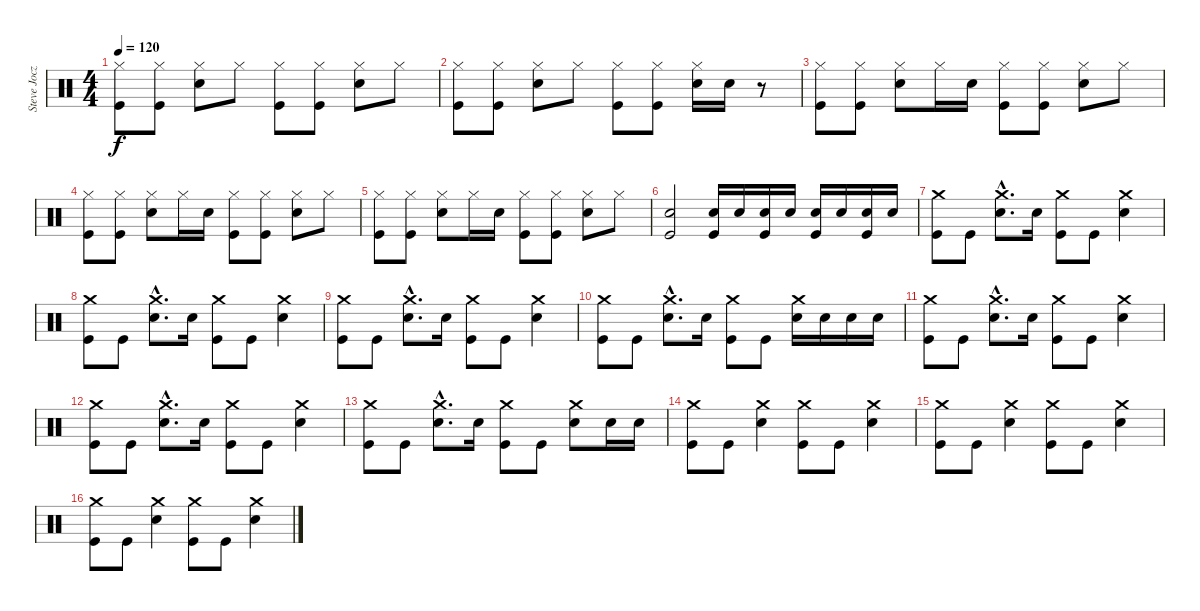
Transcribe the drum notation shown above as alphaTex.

\track ("Steve Jocz (STEVO)" "Steve Jocz") {instrument percussion}
\staff {score}
\articulation defaults
\ts (4 4)
\tempo 120
\clef neutral
\ks c
("Hi-Hat (closed)" "Kick (hit)").8{dy f} ("Hi-Hat (closed)" "Kick (hit)").8 ("Hi-Hat (closed)" "Snare (hit) 2").8 "Hi-Hat (closed)".8 ("Hi-Hat (closed)" "Kick (hit)").8 ("Hi-Hat (closed)" "Kick (hit)").8 ("Hi-Hat (closed)" "Snare (hit) 2").8 "Hi-Hat (closed)".8 |
("Hi-Hat (closed)" "Kick (hit)").8 ("Hi-Hat (closed)" "Kick (hit)").8 ("Hi-Hat (closed)" "Snare (hit) 2").8 "Hi-Hat (closed)".8 ("Hi-Hat (closed)" "Kick (hit)").8 ("Hi-Hat (closed)" "Kick (hit)").8 ("Hi-Hat (closed)" "Snare (hit) 2").16 "Snare (hit) 2".16 r.8 |
("Hi-Hat (closed)" "Kick (hit)").8 ("Hi-Hat (closed)" "Kick (hit)").8 ("Hi-Hat (closed)" "Snare (hit) 2").8 "Hi-Hat (closed)".16 "Snare (hit) 2".16 ("Hi-Hat (closed)" "Kick (hit)").8 ("Hi-Hat (closed)" "Kick (hit)").8 ("Hi-Hat (closed)" "Snare (hit) 2").8 "Hi-Hat (closed)".8 |
("Hi-Hat (closed)" "Kick (hit)").8 ("Hi-Hat (closed)" "Kick (hit)").8 ("Hi-Hat (closed)" "Snare (hit) 2").8 "Hi-Hat (closed)".16 "Snare (hit) 2".16 ("Hi-Hat (closed)" "Kick (hit)").8 ("Hi-Hat (closed)" "Kick (hit)").8 ("Hi-Hat (closed)" "Snare (hit) 2").8 "Hi-Hat (closed)".8 |
("Hi-Hat (closed)" "Kick (hit)").8 ("Hi-Hat (closed)" "Kick (hit)").8 ("Hi-Hat (closed)" "Snare (hit) 2").8 "Hi-Hat (closed)".16 "Snare (hit) 2".16 ("Hi-Hat (closed)" "Kick (hit)").8 ("Hi-Hat (closed)" "Kick (hit)").8 ("Hi-Hat (closed)" "Snare (hit) 2").8 "Hi-Hat (closed)".8 |
("Snare (hit) 2" "Kick (hit)").2 ("Snare (hit) 2" "Kick (hit)").16 "Snare (hit) 2".16 ("Snare (hit) 2" "Kick (hit)").16 "Snare (hit) 2".16 ("Snare (hit) 2" "Kick (hit)").16 "Snare (hit) 2".16 ("Snare (hit) 2" "Kick (hit)").16 "Snare (hit) 2".16 |
("Crash medium (hit)" "Kick (hit)").8 "Kick (hit)".8 ("Crash medium (hit)"{hac} "Snare (hit) 2"{hac}).8{d} "Snare (hit) 2".16 ("Crash medium (hit)" "Kick (hit)").8 "Kick (hit)".8 ("Crash medium (hit)" "Snare (hit) 2").4 |
("Crash medium (hit)" "Kick (hit)").8 "Kick (hit)".8 ("Crash medium (hit)"{hac} "Snare (hit) 2"{hac}).8{d} "Snare (hit) 2".16 ("Crash medium (hit)" "Kick (hit)").8 "Kick (hit)".8 ("Crash medium (hit)" "Snare (hit) 2").4 |
("Crash medium (hit)" "Kick (hit)").8 "Kick (hit)".8 ("Crash medium (hit)"{hac} "Snare (hit) 2"{hac}).8{d} "Snare (hit) 2".16 ("Crash medium (hit)" "Kick (hit)").8 "Kick (hit)".8 ("Crash medium (hit)" "Snare (hit) 2").4 |
("Crash medium (hit)" "Kick (hit)").8 "Kick (hit)".8 ("Crash medium (hit)"{hac} "Snare (hit) 2"{hac}).8{d} "Snare (hit) 2".16 ("Crash medium (hit)" "Kick (hit)").8 "Kick (hit)".8 ("Crash medium (hit)" "Snare (hit) 2").16 "Snare (hit) 2".16 "Snare (hit) 2".16 "Snare (hit) 2".16 |
("Crash medium (hit)" "Kick (hit)").8 "Kick (hit)".8 ("Crash medium (hit)"{hac} "Snare (hit) 2"{hac}).8{d} "Snare (hit) 2".16 ("Crash medium (hit)" "Kick (hit)").8 "Kick (hit)".8 ("Crash medium (hit)" "Snare (hit) 2").4 |
("Crash medium (hit)" "Kick (hit)").8 "Kick (hit)".8 ("Crash medium (hit)"{hac} "Snare (hit) 2"{hac}).8{d} "Snare (hit) 2".16 ("Crash medium (hit)" "Kick (hit)").8 "Kick (hit)".8 ("Crash medium (hit)" "Snare (hit) 2").4 |
("Crash medium (hit)" "Kick (hit)").8 "Kick (hit)".8 ("Crash medium (hit)"{hac} "Snare (hit) 2"{hac}).8{d} "Snare (hit) 2".16 ("Crash medium (hit)" "Kick (hit)").8 "Kick (hit)".8 ("Crash medium (hit)" "Snare (hit) 2").8 "Snare (hit) 2".16 "Snare (hit) 2".16 |
("Crash medium (hit)" "Kick (hit)").8 "Kick (hit)".8 ("Crash medium (hit)" "Snare (hit) 2").4 ("Crash medium (hit)" "Kick (hit)").8 "Kick (hit)".8 ("Crash medium (hit)" "Snare (hit) 2").4 |
("Crash medium (hit)" "Kick (hit)").8 "Kick (hit)".8 ("Crash medium (hit)" "Snare (hit) 2").4 ("Crash medium (hit)" "Kick (hit)").8 "Kick (hit)".8 ("Crash medium (hit)" "Snare (hit) 2").4 |
("Crash medium (hit)" "Kick (hit)").8 "Kick (hit)".8 ("Crash medium (hit)" "Snare (hit) 2").4 ("Crash medium (hit)" "Kick (hit)").8 "Kick (hit)".8 ("Crash medium (hit)" "Snare (hit) 2").4
